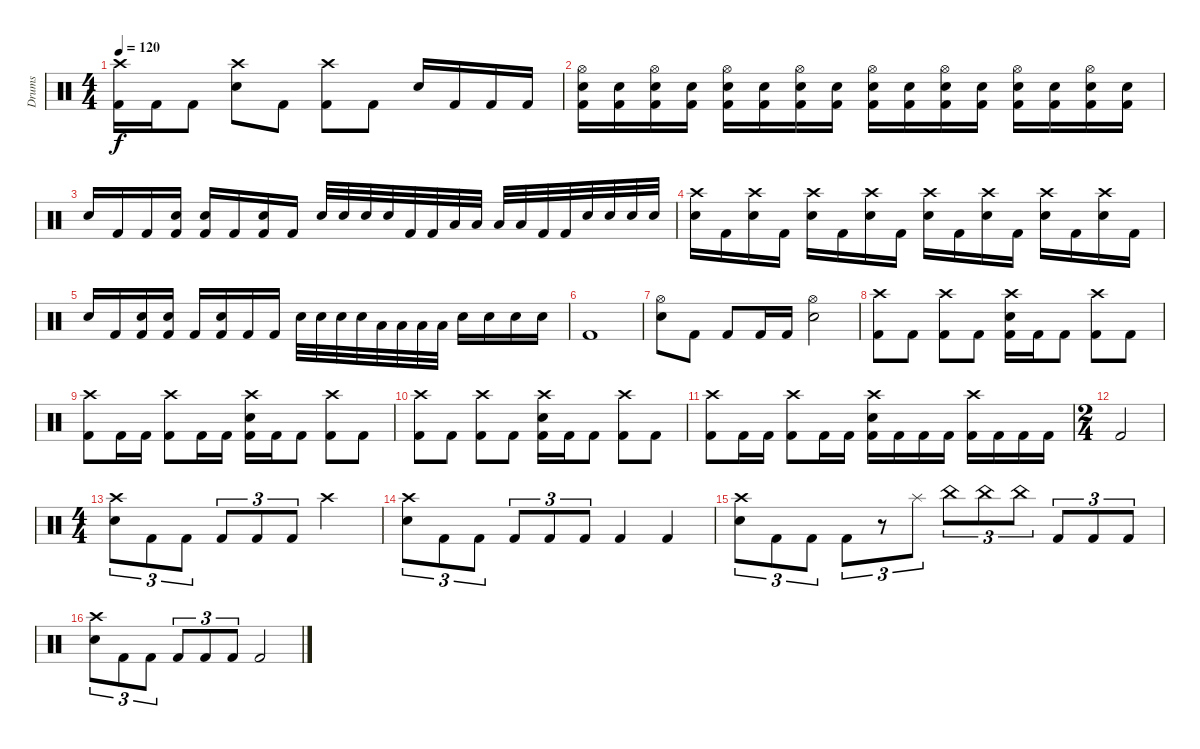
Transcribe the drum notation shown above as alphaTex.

\track ("Drums" "Drums") {instrument percussion}
\staff {score}
\articulation defaults
\ts (4 4)
\tempo 120
\clef neutral
\ks c
("Crash high (hit)" "Kick (hit) 2").16{dy f} "Kick (hit) 2".16 "Kick (hit) 2".8 ("Crash high (hit)" "Electric Snare (hit)").8 "Kick (hit) 2".8 ("Crash high (hit)" "Kick (hit) 2").8 "Kick (hit) 2".8 "Electric Snare (hit)".16 "Kick (hit) 2".16 "Kick (hit) 2".16 "Kick (hit) 2".16 |
("Hi-Hat (open)" "Electric Snare (hit)" "Kick (hit) 2").16 ("Electric Snare (hit)" "Kick (hit) 2").16 ("Hi-Hat (open)" "Electric Snare (hit)" "Kick (hit) 2").16 ("Electric Snare (hit)" "Kick (hit) 2").16 ("Hi-Hat (open)" "Electric Snare (hit)" "Kick (hit) 2").16 ("Electric Snare (hit)" "Kick (hit) 2").16 ("Hi-Hat (open)" "Electric Snare (hit)" "Kick (hit) 2").16 ("Electric Snare (hit)" "Kick (hit) 2").16 ("Hi-Hat (open)" "Electric Snare (hit)" "Kick (hit) 2").16 ("Electric Snare (hit)" "Kick (hit) 2").16 ("Hi-Hat (open)" "Electric Snare (hit)" "Kick (hit) 2").16 ("Electric Snare (hit)" "Kick (hit) 2").16 ("Hi-Hat (open)" "Electric Snare (hit)" "Kick (hit) 2").16 ("Electric Snare (hit)" "Kick (hit) 2").16 ("Hi-Hat (open)" "Electric Snare (hit)" "Kick (hit) 2").16 ("Electric Snare (hit)" "Kick (hit) 2").16 |
"Electric Snare (hit)".16 "Kick (hit) 2".16 "Kick (hit) 2".16 ("Electric Snare (hit)" "Kick (hit) 2").16 ("Electric Snare (hit)" "Kick (hit) 2").16 "Kick (hit) 2".16 ("Electric Snare (hit)" "Kick (hit) 2").16 "Kick (hit) 2".16 "Electric Snare (hit)".32 "Electric Snare (hit)".32 "Electric Snare (hit)".32 "Electric Snare (hit)".32 "Kick (hit) 2".32 "Kick (hit) 2".32 "Low Tom (hit)".32 "Low Tom (hit)".32 "Low Tom (hit)".32 "Low Tom (hit)".32 "Kick (hit) 2".32 "Kick (hit) 2".32 "Electric Snare (hit)".32 "Electric Snare (hit)".32 "Electric Snare (hit)".32 "Electric Snare (hit)".32 |
("Crash high (hit)" "Electric Snare (hit)").16 "Kick (hit) 2".16 ("Crash high (hit)" "Electric Snare (hit)").16 "Kick (hit) 2".16 ("Crash high (hit)" "Electric Snare (hit)").16 "Kick (hit) 2".16 ("Crash high (hit)" "Electric Snare (hit)").16 "Kick (hit) 2".16 ("Crash high (hit)" "Electric Snare (hit)").16 "Kick (hit) 2".16 ("Crash high (hit)" "Electric Snare (hit)").16 "Kick (hit) 2".16 ("Crash high (hit)" "Electric Snare (hit)").16 "Kick (hit) 2".16 ("Crash high (hit)" "Electric Snare (hit)").16 "Kick (hit) 2".16 |
"Electric Snare (hit)".16 "Kick (hit) 2".16 ("Electric Snare (hit)" "Kick (hit) 2").16 ("Electric Snare (hit)" "Kick (hit) 2").16 "Kick (hit) 2".16 ("Electric Snare (hit)" "Kick (hit) 2").16 "Kick (hit) 2".16 "Kick (hit) 2".16 "Electric Snare (hit)".32 "Electric Snare (hit)".32 "Electric Snare (hit)".32 "Electric Snare (hit)".32 "Low Tom (hit)".32 "Low Tom (hit)".32 "Low Tom (hit)".32 "Low Tom (hit)".32 "Electric Snare (hit)".16 "Electric Snare (hit)".16 "Electric Snare (hit)".16 "Electric Snare (hit)".16 |
"Kick (hit) 2".1 |
("Hi-Hat (open)" "Electric Snare (hit)").8 "Kick (hit) 2".8 "Kick (hit) 2".8 "Kick (hit) 2".16 "Kick (hit) 2".16 ("Hi-Hat (open)" "Electric Snare (hit)").2 |
("Crash high (hit)" "Kick (hit) 2").8 "Kick (hit) 2".8 ("Crash high (hit)" "Kick (hit) 2").8 "Kick (hit) 2".8 ("Crash high (hit)" "Electric Snare (hit)" "Kick (hit) 2").16 "Kick (hit) 2".16 "Kick (hit) 2".8 ("Crash high (hit)" "Kick (hit) 2").8 "Kick (hit) 2".8 |
("Crash high (hit)" "Kick (hit) 2").8 "Kick (hit) 2".16 "Kick (hit) 2".16 ("Crash high (hit)" "Kick (hit) 2").8 "Kick (hit) 2".16 "Kick (hit) 2".16 ("Crash high (hit)" "Electric Snare (hit)" "Kick (hit) 2").16 "Kick (hit) 2".16 "Kick (hit) 2".8 ("Crash high (hit)" "Kick (hit) 2").8 "Kick (hit) 2".8 |
("Crash high (hit)" "Kick (hit) 2").8 "Kick (hit) 2".8 ("Crash high (hit)" "Kick (hit) 2").8 "Kick (hit) 2".8 ("Crash high (hit)" "Electric Snare (hit)" "Kick (hit) 2").16 "Kick (hit) 2".16 "Kick (hit) 2".8 ("Crash high (hit)" "Kick (hit) 2").8 "Kick (hit) 2".8 |
("Crash high (hit)" "Kick (hit) 2").8 "Kick (hit) 2".16 "Kick (hit) 2".16 ("Crash high (hit)" "Kick (hit) 2").8 "Kick (hit) 2".16 "Kick (hit) 2".16 ("Crash high (hit)" "Electric Snare (hit)" "Kick (hit) 2").16 "Kick (hit) 2".16 "Kick (hit) 2".16 "Kick (hit) 2".16 ("Crash high (hit)" "Kick (hit) 2").16 "Kick (hit) 2".16 "Kick (hit) 2".16 "Kick (hit) 2".16 |
\ts (2 4)
"Kick (hit) 2".2 |
\ts (4 4)
("Crash high (hit)" "Electric Snare (hit)").8{tu (3 2)} "Kick (hit) 2".8{tu (3 2)} "Kick (hit) 2".8{tu (3 2)} "Kick (hit) 2".8{tu (3 2)} "Kick (hit) 2".8{tu (3 2)} "Kick (hit) 2".8{tu (3 2)} "Crash high (hit)".2 |
("Crash high (hit)" "Electric Snare (hit)").8{tu (3 2)} "Kick (hit) 2".8{tu (3 2)} "Kick (hit) 2".8{tu (3 2)} "Kick (hit) 2".8{tu (3 2)} "Kick (hit) 2".8{tu (3 2)} "Kick (hit) 2".8{tu (3 2)} "Kick (hit) 2".4 "Kick (hit) 2".4 |
("Crash high (hit)" "Electric Snare (hit)").8{tu (3 2)} "Kick (hit) 2".8{tu (3 2)} "Kick (hit) 2".8{tu (3 2)} "Kick (hit) 2".8{tu (3 2)} r.8{tu (3 2)} "Splash (hit)".8{tu (3 2)} "China (hit)".8{tu (3 2)} "China (hit)".8{tu (3 2)} "China (hit)".8{tu (3 2)} "Kick (hit) 2".8{tu (3 2)} "Kick (hit) 2".8{tu (3 2)} "Kick (hit) 2".8{tu (3 2)} |
("Crash high (hit)" "Electric Snare (hit)").8{tu (3 2)} "Kick (hit) 2".8{tu (3 2)} "Kick (hit) 2".8{tu (3 2)} "Kick (hit) 2".8{tu (3 2)} "Kick (hit) 2".8{tu (3 2)} "Kick (hit) 2".8{tu (3 2)} "Kick (hit) 2".2
